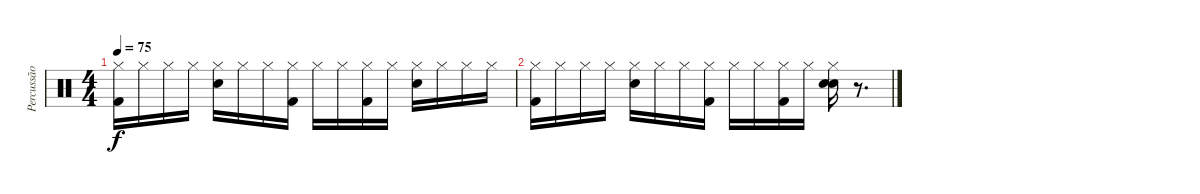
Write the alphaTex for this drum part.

\track ("Percussão" "Percussão") {instrument percussion}
\staff {score}
\articulation defaults
\ts (4 4)
\tempo 75
\clef neutral
\ks c
("Hi-Hat (closed)" "Kick (hit) 2").16{dy f} "Hi-Hat (closed)".16 "Hi-Hat (closed)".16 "Hi-Hat (closed)".16 ("Hi-Hat (closed)" "Electric Snare (hit)").16 "Hi-Hat (closed)".16 "Hi-Hat (closed)".16 ("Hi-Hat (closed)" "Kick (hit) 2").16 "Hi-Hat (closed)".16 "Hi-Hat (closed)".16 ("Hi-Hat (closed)" "Kick (hit) 2").16 "Hi-Hat (closed)".16 ("Hi-Hat (closed)" "Electric Snare (hit)").16 "Hi-Hat (closed)".16 "Hi-Hat (closed)".16 "Hi-Hat (closed)".16 |
("Hi-Hat (closed)" "Kick (hit) 2").16 "Hi-Hat (closed)".16 "Hi-Hat (closed)".16 "Hi-Hat (closed)".16 ("Hi-Hat (closed)" "Electric Snare (hit)").16 "Hi-Hat (closed)".16 "Hi-Hat (closed)".16 ("Hi-Hat (closed)" "Kick (hit) 2").16 "Hi-Hat (closed)".16 "Hi-Hat (closed)".16 ("Hi-Hat (closed)" "Kick (hit) 2").16 "Hi-Hat (closed)".16 ("Hi-Hat (closed)" "Snare (hit) 2" "Electric Snare (hit)").16 r.8{d}
